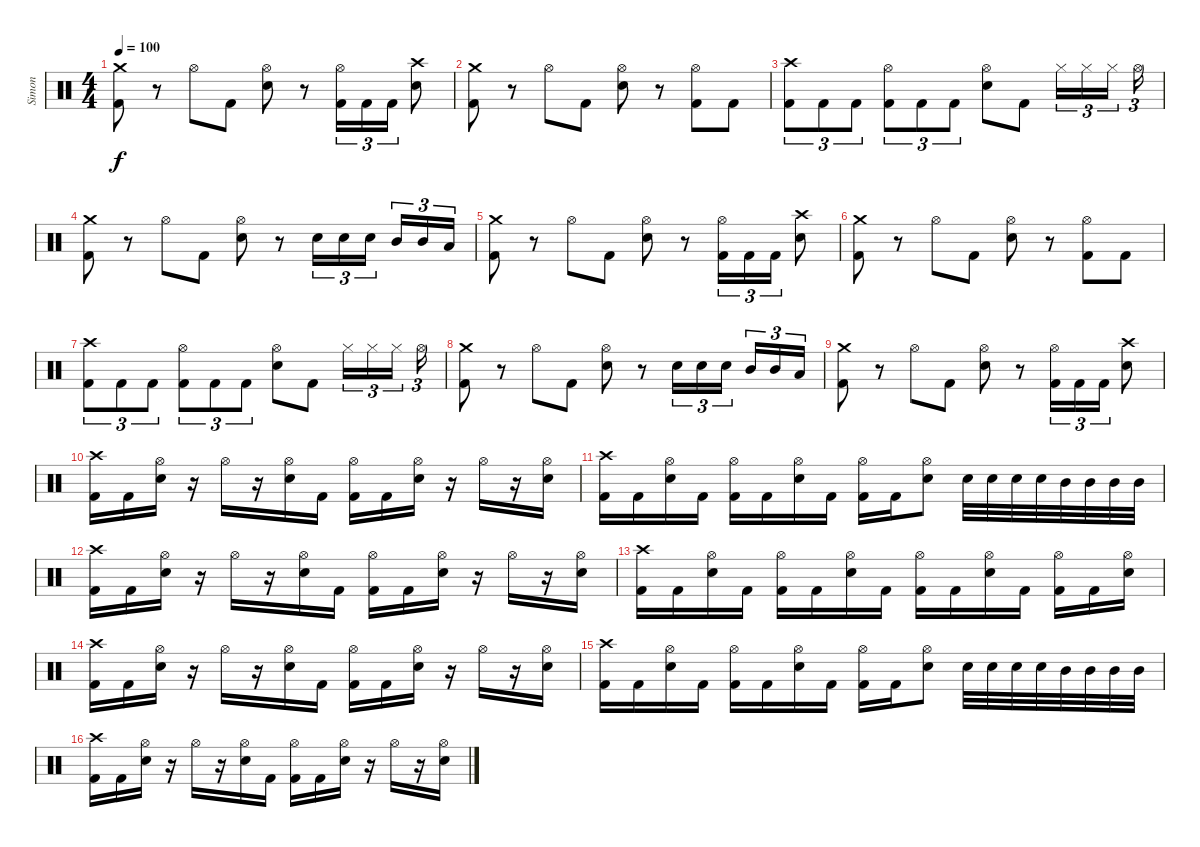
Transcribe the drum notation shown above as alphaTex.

\track ("Simon" "Simon") {instrument percussion}
\staff {score}
\articulation defaults
\ts (4 4)
\tempo 100
\clef neutral
\ks c
("Crash medium (hit)" "Kick (hit) 2").8{dy f} r.8 "Hi-Hat (open)".8 "Kick (hit) 2".8 ("Hi-Hat (open)" "Electric Snare (hit)").8 r.8 ("Hi-Hat (open)" "Kick (hit) 2").16{tu (3 2)} "Kick (hit) 2".16{tu (3 2)} "Kick (hit) 2".16{tu (3 2)} ("Crash high (hit)" "Electric Snare (hit)").8 |
("Crash medium (hit)" "Kick (hit) 2").8 r.8 "Hi-Hat (open)".8 "Kick (hit) 2".8 ("Hi-Hat (open)" "Electric Snare (hit)").8 r.8 ("Hi-Hat (open)" "Kick (hit) 2").8 "Kick (hit) 2".8 |
("Crash high (hit)" "Kick (hit) 2").8{tu (3 2)} "Kick (hit) 2".8{tu (3 2)} "Kick (hit) 2".8{tu (3 2)} ("Hi-Hat (open)" "Kick (hit) 2").8{tu (3 2)} "Kick (hit) 2".8{tu (3 2)} "Kick (hit) 2".8{tu (3 2)} ("Hi-Hat (open)" "Electric Snare (hit)").8 "Kick (hit) 2".8 "Hi-Hat (closed)".16{tu (3 2)} "Hi-Hat (closed)".16{tu (3 2)} "Hi-Hat (closed)".16{tu (3 2) beam splitsecondary} "Hi-Hat (open)".16{tu (3 2)} |
("Crash medium (hit)" "Kick (hit) 2").8 r.8 "Hi-Hat (open)".8 "Kick (hit) 2".8 ("Hi-Hat (open)" "Electric Snare (hit)").8 r.8 "Electric Snare (hit)".16{tu (3 2)} "Electric Snare (hit)".16{tu (3 2)} "Electric Snare (hit)".16{tu (3 2) beam splitsecondary} "Mid Tom (hit)".16{tu (3 2)} "Mid Tom (hit)".16{tu (3 2)} "Low Tom (hit)".16{tu (3 2)} |
("Crash medium (hit)" "Kick (hit) 2").8 r.8 "Hi-Hat (open)".8 "Kick (hit) 2".8 ("Hi-Hat (open)" "Electric Snare (hit)").8 r.8 ("Hi-Hat (open)" "Kick (hit) 2").16{tu (3 2)} "Kick (hit) 2".16{tu (3 2)} "Kick (hit) 2".16{tu (3 2)} ("Crash high (hit)" "Electric Snare (hit)").8 |
("Crash medium (hit)" "Kick (hit) 2").8 r.8 "Hi-Hat (open)".8 "Kick (hit) 2".8 ("Hi-Hat (open)" "Electric Snare (hit)").8 r.8 ("Hi-Hat (open)" "Kick (hit) 2").8 "Kick (hit) 2".8 |
("Crash high (hit)" "Kick (hit) 2").8{tu (3 2)} "Kick (hit) 2".8{tu (3 2)} "Kick (hit) 2".8{tu (3 2)} ("Hi-Hat (open)" "Kick (hit) 2").8{tu (3 2)} "Kick (hit) 2".8{tu (3 2)} "Kick (hit) 2".8{tu (3 2)} ("Hi-Hat (open)" "Electric Snare (hit)").8 "Kick (hit) 2".8 "Hi-Hat (closed)".16{tu (3 2)} "Hi-Hat (closed)".16{tu (3 2)} "Hi-Hat (closed)".16{tu (3 2) beam splitsecondary} "Hi-Hat (open)".16{tu (3 2)} |
("Crash medium (hit)" "Kick (hit) 2").8 r.8 "Hi-Hat (open)".8 "Kick (hit) 2".8 ("Hi-Hat (open)" "Electric Snare (hit)").8 r.8 "Electric Snare (hit)".16{tu (3 2)} "Electric Snare (hit)".16{tu (3 2)} "Electric Snare (hit)".16{tu (3 2) beam splitsecondary} "Mid Tom (hit)".16{tu (3 2)} "Mid Tom (hit)".16{tu (3 2)} "Low Tom (hit)".16{tu (3 2)} |
("Crash medium (hit)" "Kick (hit) 2").8 r.8 "Hi-Hat (open)".8 "Kick (hit) 2".8 ("Hi-Hat (open)" "Electric Snare (hit)").8 r.8 ("Hi-Hat (open)" "Kick (hit) 2").16{tu (3 2)} "Kick (hit) 2".16{tu (3 2)} "Kick (hit) 2".16{tu (3 2)} ("Crash high (hit)" "Electric Snare (hit)").8 |
("Crash high (hit)" "Kick (hit) 2").16 "Kick (hit) 2".16 ("Hi-Hat (open)" "Electric Snare (hit)").16 r.16 "Hi-Hat (open)".16 r.16 ("Hi-Hat (open)" "Electric Snare (hit)").16 "Kick (hit) 2".16 ("Hi-Hat (open)" "Kick (hit) 2").16 "Kick (hit) 2".16 ("Hi-Hat (open)" "Electric Snare (hit)").16 r.16 "Hi-Hat (open)".16 r.16 ("Hi-Hat (open)" "Electric Snare (hit)").16 |
("Crash high (hit)" "Kick (hit) 2").16 "Kick (hit) 2".16 ("Hi-Hat (open)" "Electric Snare (hit)").16 "Kick (hit) 2".16 ("Hi-Hat (open)" "Kick (hit) 2").16 "Kick (hit) 2".16 ("Hi-Hat (open)" "Electric Snare (hit)").16 "Kick (hit) 2".16 ("Hi-Hat (open)" "Kick (hit) 2").16 "Kick (hit) 2".16 ("Hi-Hat (open)" "Electric Snare (hit)").8 "Electric Snare (hit)".32 "Electric Snare (hit)".32 "Electric Snare (hit)".32 "Electric Snare (hit)".32 "Mid Tom (hit)".32 "Mid Tom (hit)".32 "Mid Tom (hit)".32 "Mid Tom (hit)".32 |
("Crash high (hit)" "Kick (hit) 2").16 "Kick (hit) 2".16 ("Hi-Hat (open)" "Electric Snare (hit)").16 r.16 "Hi-Hat (open)".16 r.16 ("Hi-Hat (open)" "Electric Snare (hit)").16 "Kick (hit) 2".16 ("Hi-Hat (open)" "Kick (hit) 2").16 "Kick (hit) 2".16 ("Hi-Hat (open)" "Electric Snare (hit)").16 r.16 "Hi-Hat (open)".16 r.16 ("Hi-Hat (open)" "Electric Snare (hit)").16 |
("Crash high (hit)" "Kick (hit) 2").16 "Kick (hit) 2".16 ("Hi-Hat (open)" "Electric Snare (hit)").16 "Kick (hit) 2".16 ("Hi-Hat (open)" "Kick (hit) 2").16 "Kick (hit) 2".16 ("Hi-Hat (open)" "Electric Snare (hit)").16 "Kick (hit) 2".16 ("Hi-Hat (open)" "Kick (hit) 2").16 "Kick (hit) 2".16 ("Hi-Hat (open)" "Electric Snare (hit)").16 "Kick (hit) 2".16 ("Hi-Hat (open)" "Kick (hit) 2").16 "Kick (hit) 2".16 ("Hi-Hat (open)" "Electric Snare (hit)").16 |
("Crash high (hit)" "Kick (hit) 2").16 "Kick (hit) 2".16 ("Hi-Hat (open)" "Electric Snare (hit)").16 r.16 "Hi-Hat (open)".16 r.16 ("Hi-Hat (open)" "Electric Snare (hit)").16 "Kick (hit) 2".16 ("Hi-Hat (open)" "Kick (hit) 2").16 "Kick (hit) 2".16 ("Hi-Hat (open)" "Electric Snare (hit)").16 r.16 "Hi-Hat (open)".16 r.16 ("Hi-Hat (open)" "Electric Snare (hit)").16 |
("Crash high (hit)" "Kick (hit) 2").16 "Kick (hit) 2".16 ("Hi-Hat (open)" "Electric Snare (hit)").16 "Kick (hit) 2".16 ("Hi-Hat (open)" "Kick (hit) 2").16 "Kick (hit) 2".16 ("Hi-Hat (open)" "Electric Snare (hit)").16 "Kick (hit) 2".16 ("Hi-Hat (open)" "Kick (hit) 2").16 "Kick (hit) 2".16 ("Hi-Hat (open)" "Electric Snare (hit)").8 "Electric Snare (hit)".32 "Electric Snare (hit)".32 "Electric Snare (hit)".32 "Electric Snare (hit)".32 "Mid Tom (hit)".32 "Mid Tom (hit)".32 "Mid Tom (hit)".32 "Mid Tom (hit)".32 |
("Crash high (hit)" "Kick (hit) 2").16 "Kick (hit) 2".16 ("Hi-Hat (open)" "Electric Snare (hit)").16 r.16 "Hi-Hat (open)".16 r.16 ("Hi-Hat (open)" "Electric Snare (hit)").16 "Kick (hit) 2".16 ("Hi-Hat (open)" "Kick (hit) 2").16 "Kick (hit) 2".16 ("Hi-Hat (open)" "Electric Snare (hit)").16 r.16 "Hi-Hat (open)".16 r.16 ("Hi-Hat (open)" "Electric Snare (hit)").16
